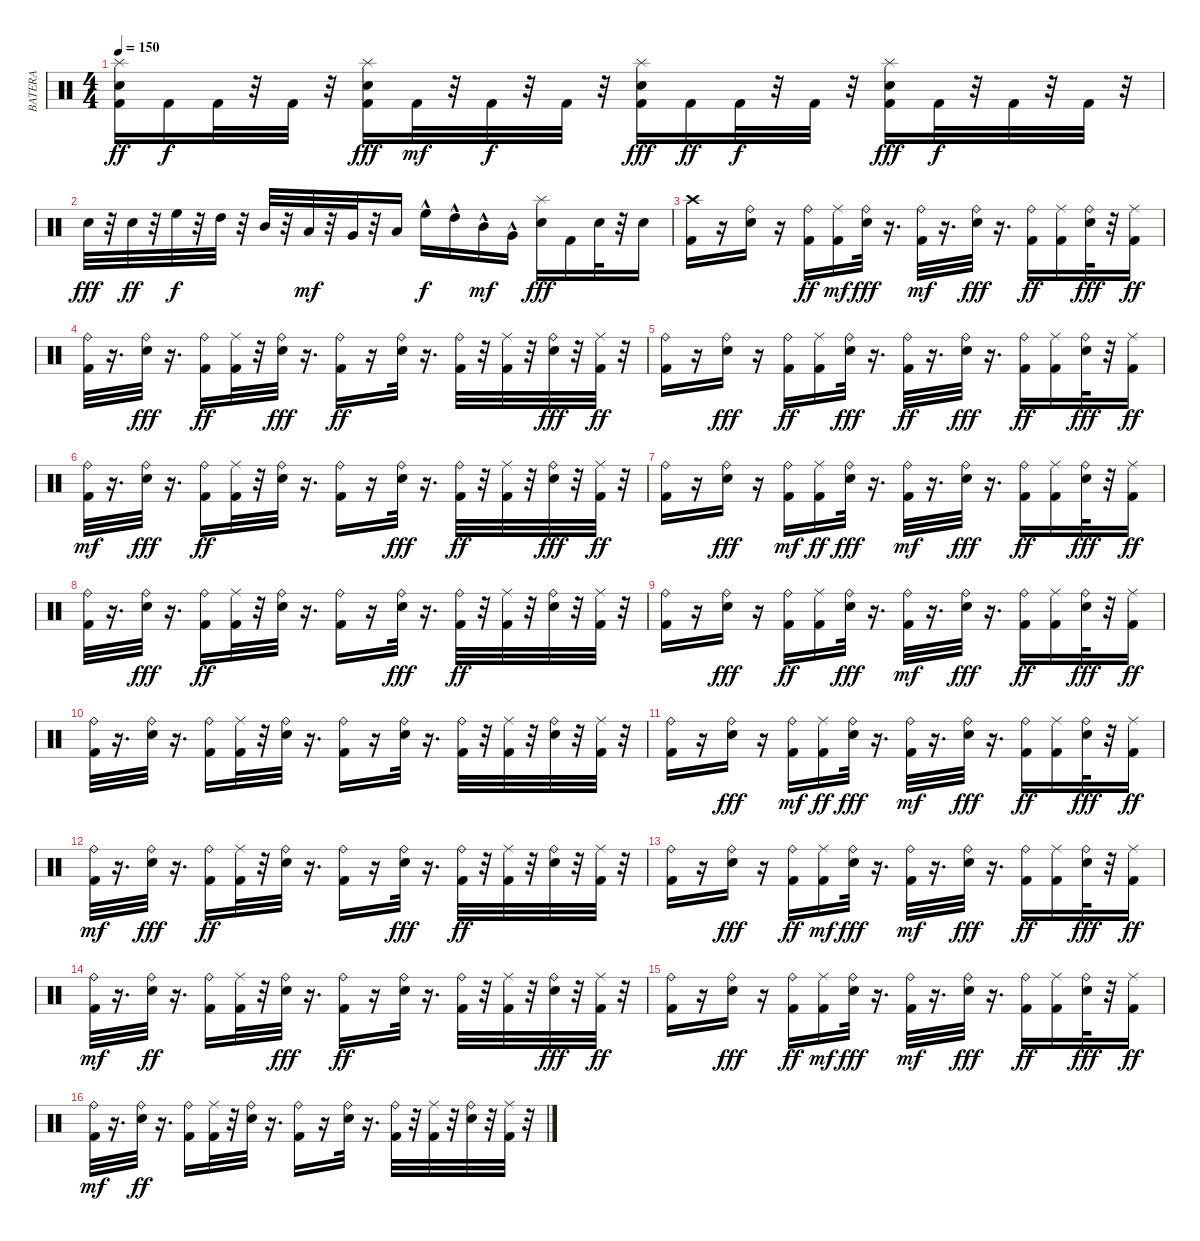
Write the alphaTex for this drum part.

\track ("BATERA" "BATERA") {instrument percussion}
\staff {score}
\articulation defaults
\ts (4 4)
\tempo 150
\clef neutral
\ks c
("Splash (hit)" "Electric Snare (hit)" "Kick (hit) 2").16{dy ff} "Kick (hit) 2".16{dy f} "Kick (hit) 2".32 r.32 "Kick (hit) 2".32 r.32 ("Kick (hit) 2" "Splash (hit)" "Electric Snare (hit)").16{dy fff} "Kick (hit) 2".32{dy mf} r.32 "Kick (hit) 2".32{dy f} r.32 "Kick (hit) 2".32 r.32 ("Kick (hit) 2" "Electric Snare (hit)" "Splash (hit)").16{dy fff} "Kick (hit) 2".16{dy ff} "Kick (hit) 2".32{dy f} r.32 "Kick (hit) 2".32 r.32 ("Splash (hit)" "Kick (hit) 2" "Electric Snare (hit)").16{dy fff} "Kick (hit) 2".32{dy f} r.32 "Kick (hit) 2".32 r.32 "Kick (hit) 2".32 r.32 |
"Electric Snare (hit)".32{dy fff} r.32 "Electric Snare (hit)".32{dy ff} r.32 "High Floor Tom (hit)".32{dy f} r.32 "High Tom (hit)".32 r.32 "Mid Tom (hit)".32 r.32 "Low Tom (hit)".32{dy mf} r.32 "Very Low Tom (hit)".32 r.32 "Low Floor Tom (hit)".16 "High Floor Tom (hit)"{hac}.16{dy f} "High Tom (hit)"{hac}.16 "Mid Tom (hit)"{hac}.16{dy mf} "Very Low Tom (hit)"{hac}.16 ("Splash (hit)" "Electric Snare (hit)").16{dy fff} "Kick (hit) 2".16 "Electric Snare (hit)".32 r.32 "Electric Snare (hit)".16 |
("Kick (hit) 2" "Crash high (hit)").16 r.16 ("Electric Snare (hit)" "Ride (bell)").16 r.16 ("Ride (bell)" "Kick (hit) 2").16{dy ff} ("Kick (hit) 2" "Ride (middle)").16{dy mf} ("Ride (bell)" "Electric Snare (hit)").32{dy fff} r.16{d} ("Kick (hit) 2" "Ride (bell)").32{dy mf} r.16{d} ("Electric Snare (hit)" "Ride (bell)").32{dy fff} r.16{d} ("Kick (hit) 2" "Ride (bell)").16{dy ff} ("Kick (hit) 2" "Ride (middle)").16 ("Electric Snare (hit)" "Ride (bell)").32{dy fff} r.32 ("Ride (middle)" "Kick (hit) 2").16{dy ff} |
("Ride (bell)" "Kick (hit) 2").32 r.16{d} ("Ride (bell)" "Electric Snare (hit)").32{dy fff} r.16{d} ("Ride (bell)" "Kick (hit) 2").16{dy ff} ("Kick (hit) 2" "Ride (middle)").32 r.32 ("Ride (bell)" "Electric Snare (hit)").32{dy fff} r.16{d} ("Kick (hit) 2" "Ride (bell)").16{dy ff} r.16 ("Electric Snare (hit)" "Ride (bell)").32 r.16{d} ("Ride (bell)" "Kick (hit) 2").32 r.32 ("Kick (hit) 2" "Ride (middle)").32 r.32 ("Ride (bell)" "Electric Snare (hit)").32{dy fff} r.32 ("Ride (middle)" "Kick (hit) 2").32{dy ff} r.32 |
("Ride (bell)" "Kick (hit) 2").16 r.16 ("Electric Snare (hit)" "Ride (bell)").16{dy fff} r.16 ("Ride (bell)" "Kick (hit) 2").16{dy ff} ("Ride (middle)" "Kick (hit) 2").16 ("Electric Snare (hit)" "Ride (bell)").32{dy fff} r.16{d} ("Ride (bell)" "Kick (hit) 2").32{dy ff} r.16{d} ("Ride (bell)" "Electric Snare (hit)").32{dy fff} r.16{d} ("Ride (bell)" "Kick (hit) 2").16{dy ff} ("Kick (hit) 2" "Ride (middle)").16 ("Ride (bell)" "Electric Snare (hit)").32{dy fff} r.32 ("Ride (middle)" "Kick (hit) 2").16{dy ff} |
("Kick (hit) 2" "Ride (bell)").32{dy mf} r.16{d} ("Ride (bell)" "Electric Snare (hit)").32{dy fff} r.16{d} ("Ride (bell)" "Kick (hit) 2").16{dy ff} ("Kick (hit) 2" "Ride (middle)").32 r.32 ("Electric Snare (hit)" "Ride (bell)").32 r.16{d} ("Kick (hit) 2" "Ride (bell)").16 r.16 ("Ride (bell)" "Electric Snare (hit)").32{dy fff} r.16{d} ("Kick (hit) 2" "Ride (bell)").32{dy ff} r.32 ("Kick (hit) 2" "Ride (middle)").32 r.32 ("Ride (bell)" "Electric Snare (hit)").32{dy fff} r.32 ("Kick (hit) 2" "Ride (middle)").32{dy ff} r.32 |
("Ride (bell)" "Kick (hit) 2").16 r.16 ("Electric Snare (hit)" "Ride (bell)").16{dy fff} r.16 ("Kick (hit) 2" "Ride (bell)").16{dy mf} ("Ride (middle)" "Kick (hit) 2").16{dy ff} ("Electric Snare (hit)" "Ride (bell)").32{dy fff} r.16{d} ("Kick (hit) 2" "Ride (bell)").32{dy mf} r.16{d} ("Ride (bell)" "Electric Snare (hit)").32{dy fff} r.16{d} ("Kick (hit) 2" "Ride (bell)").16{dy ff} ("Ride (middle)" "Kick (hit) 2").16 ("Electric Snare (hit)" "Ride (bell)").32{dy fff} r.32 ("Kick (hit) 2" "Ride (middle)").16{dy ff} |
("Ride (bell)" "Kick (hit) 2").32 r.16{d} ("Ride (bell)" "Electric Snare (hit)").32{dy fff} r.16{d} ("Kick (hit) 2" "Ride (bell)").16{dy ff} ("Kick (hit) 2" "Ride (middle)").32 r.32 ("Electric Snare (hit)" "Ride (bell)").32 r.16{d} ("Ride (bell)" "Kick (hit) 2").16 r.16 ("Ride (bell)" "Electric Snare (hit)").32{dy fff} r.16{d} ("Ride (bell)" "Kick (hit) 2").32{dy ff} r.32 ("Ride (middle)" "Kick (hit) 2").32 r.32 ("Electric Snare (hit)" "Ride (bell)").32 r.32 ("Ride (middle)" "Kick (hit) 2").32 r.32 |
("Ride (bell)" "Kick (hit) 2").16 r.16 ("Electric Snare (hit)" "Ride (bell)").16{dy fff} r.16 ("Ride (bell)" "Kick (hit) 2").16{dy ff} ("Ride (middle)" "Kick (hit) 2").16 ("Electric Snare (hit)" "Ride (bell)").32{dy fff} r.16{d} ("Kick (hit) 2" "Ride (bell)").32{dy mf} r.16{d} ("Electric Snare (hit)" "Ride (bell)").32{dy fff} r.16{d} ("Ride (bell)" "Kick (hit) 2").16{dy ff} ("Kick (hit) 2" "Ride (middle)").16 ("Electric Snare (hit)" "Ride (bell)").32{dy fff} r.32 ("Kick (hit) 2" "Ride (middle)").16{dy ff} |
("Ride (bell)" "Kick (hit) 2").32 r.16{d} ("Electric Snare (hit)" "Ride (bell)").32 r.16{d} ("Kick (hit) 2" "Ride (bell)").16 ("Ride (middle)" "Kick (hit) 2").32 r.32 ("Electric Snare (hit)" "Ride (bell)").32 r.16{d} ("Ride (bell)" "Kick (hit) 2").16 r.16 ("Electric Snare (hit)" "Ride (bell)").32 r.16{d} ("Ride (bell)" "Kick (hit) 2").32 r.32 ("Kick (hit) 2" "Ride (middle)").32 r.32 ("Electric Snare (hit)" "Ride (bell)").32 r.32 ("Ride (middle)" "Kick (hit) 2").32 r.32 |
("Kick (hit) 2" "Ride (bell)").16 r.16 ("Ride (bell)" "Electric Snare (hit)").16{dy fff} r.16 ("Kick (hit) 2" "Ride (bell)").16{dy mf} ("Ride (middle)" "Kick (hit) 2").16{dy ff} ("Ride (bell)" "Electric Snare (hit)").32{dy fff} r.16{d} ("Kick (hit) 2" "Ride (bell)").32{dy mf} r.16{d} ("Ride (bell)" "Electric Snare (hit)").32{dy fff} r.16{d} ("Kick (hit) 2" "Ride (bell)").16{dy ff} ("Ride (middle)" "Kick (hit) 2").16 ("Electric Snare (hit)" "Ride (bell)").32{dy fff} r.32 ("Ride (middle)" "Kick (hit) 2").16{dy ff} |
("Kick (hit) 2" "Ride (bell)").32{dy mf} r.16{d} ("Ride (bell)" "Electric Snare (hit)").32{dy fff} r.16{d} ("Kick (hit) 2" "Ride (bell)").16{dy ff} ("Ride (middle)" "Kick (hit) 2").32 r.32 ("Electric Snare (hit)" "Ride (bell)").32 r.16{d} ("Ride (bell)" "Kick (hit) 2").16 r.16 ("Ride (bell)" "Electric Snare (hit)").32{dy fff} r.16{d} ("Kick (hit) 2" "Ride (bell)").32{dy ff} r.32 ("Ride (middle)" "Kick (hit) 2").32 r.32 ("Electric Snare (hit)" "Ride (bell)").32 r.32 ("Ride (middle)" "Kick (hit) 2").32 r.32 |
("Ride (bell)" "Kick (hit) 2").16 r.16 ("Ride (bell)" "Electric Snare (hit)").16{dy fff} r.16 ("Ride (bell)" "Kick (hit) 2").16{dy ff} ("Kick (hit) 2" "Ride (middle)").16{dy mf} ("Ride (bell)" "Electric Snare (hit)").32{dy fff} r.16{d} ("Kick (hit) 2" "Ride (bell)").32{dy mf} r.16{d} ("Ride (bell)" "Electric Snare (hit)").32{dy fff} r.16{d} ("Kick (hit) 2" "Ride (bell)").16{dy ff} ("Ride (middle)" "Kick (hit) 2").16 ("Ride (bell)" "Electric Snare (hit)").32{dy fff} r.32 ("Kick (hit) 2" "Ride (middle)").16{dy ff} |
("Kick (hit) 2" "Ride (bell)").32{dy mf} r.16{d} ("Electric Snare (hit)" "Ride (bell)").32{dy ff} r.16{d} ("Ride (bell)" "Kick (hit) 2").16 ("Kick (hit) 2" "Ride (middle)").32 r.32 ("Ride (bell)" "Electric Snare (hit)").32{dy fff} r.16{d} ("Kick (hit) 2" "Ride (bell)").16{dy ff} r.16 ("Electric Snare (hit)" "Ride (bell)").32 r.16{d} ("Ride (bell)" "Kick (hit) 2").32 r.32 ("Kick (hit) 2" "Ride (middle)").32 r.32 ("Ride (bell)" "Electric Snare (hit)").32{dy fff} r.32 ("Kick (hit) 2" "Ride (middle)").32{dy ff} r.32 |
("Ride (bell)" "Kick (hit) 2").16 r.16 ("Electric Snare (hit)" "Ride (bell)").16{dy fff} r.16 ("Ride (bell)" "Kick (hit) 2").16{dy ff} ("Kick (hit) 2" "Ride (middle)").16{dy mf} ("Electric Snare (hit)" "Ride (bell)").32{dy fff} r.16{d} ("Kick (hit) 2" "Ride (bell)").32{dy mf} r.16{d} ("Electric Snare (hit)" "Ride (bell)").32{dy fff} r.16{d} ("Ride (bell)" "Kick (hit) 2").16{dy ff} ("Kick (hit) 2" "Ride (middle)").16 ("Ride (bell)" "Electric Snare (hit)").32{dy fff} r.32 ("Ride (middle)" "Kick (hit) 2").16{dy ff} |
("Kick (hit) 2" "Ride (bell)").32{dy mf} r.16{d} ("Electric Snare (hit)" "Ride (bell)").32{dy ff} r.16{d} ("Ride (bell)" "Kick (hit) 2").16 ("Ride (middle)" "Kick (hit) 2").32 r.32 ("Electric Snare (hit)" "Ride (bell)").32 r.16{d} ("Kick (hit) 2" "Ride (bell)").16 r.16 ("Electric Snare (hit)" "Ride (bell)").32 r.16{d} ("Kick (hit) 2" "Ride (bell)").32 r.32 ("Kick (hit) 2" "Ride (middle)").32 r.32 ("Electric Snare (hit)" "Ride (bell)").32 r.32 ("Ride (middle)" "Kick (hit) 2").32 r.32
